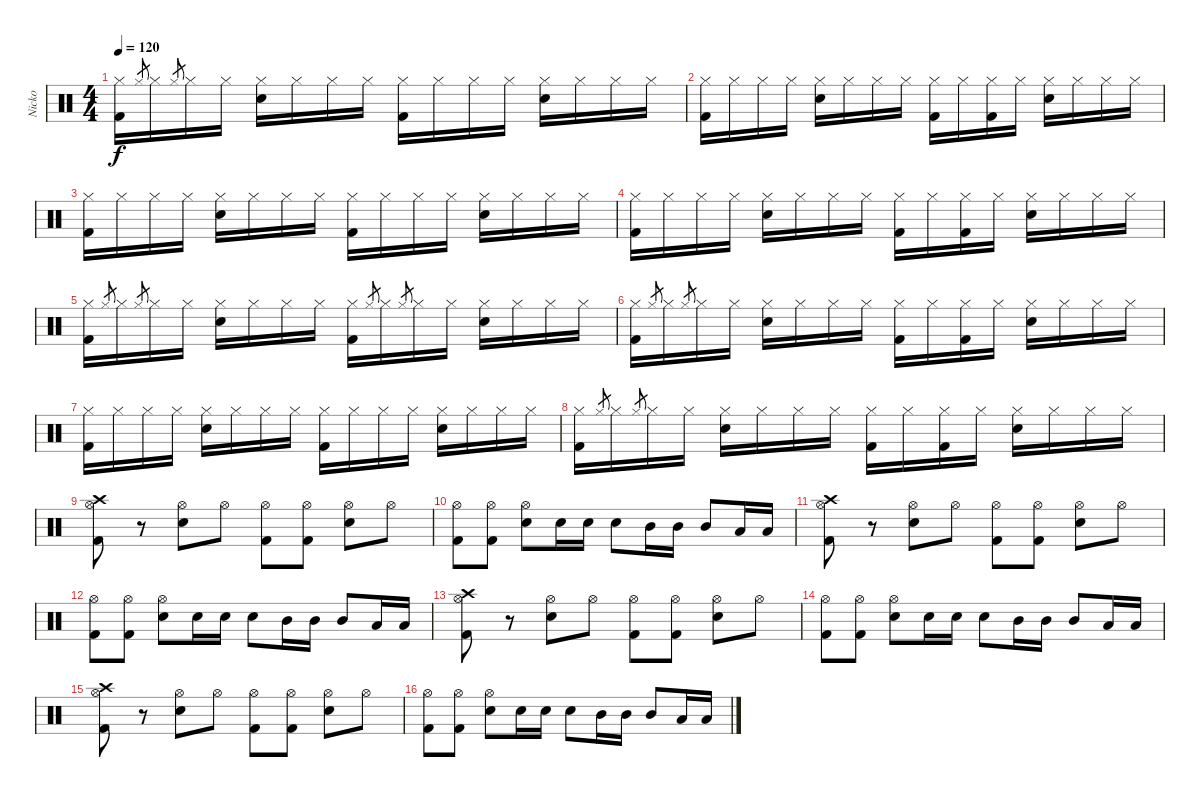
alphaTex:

\track ("Nicko" "Nicko") {instrument percussion}
\staff {score}
\articulation defaults
\ts (4 4)
\tempo 120
\clef neutral
\ks c
("Kick (hit) 2" "Hi-Hat (closed)").16{dy f} "Hi-Hat (closed)".8{gr} "Hi-Hat (closed)".16 "Hi-Hat (closed)".8{gr} "Hi-Hat (closed)".16 "Hi-Hat (closed)".16 ("Hi-Hat (closed)" "Electric Snare (hit)").16 "Hi-Hat (closed)".16 "Hi-Hat (closed)".16 "Hi-Hat (closed)".16 ("Hi-Hat (closed)" "Kick (hit) 2").16 "Hi-Hat (closed)".16 "Hi-Hat (closed)".16 "Hi-Hat (closed)".16 ("Hi-Hat (closed)" "Electric Snare (hit)").16 "Hi-Hat (closed)".16 "Hi-Hat (closed)".16 "Hi-Hat (closed)".16 |
("Kick (hit) 2" "Hi-Hat (closed)").16 "Hi-Hat (closed)".16 "Hi-Hat (closed)".16 "Hi-Hat (closed)".16 ("Hi-Hat (closed)" "Electric Snare (hit)").16 "Hi-Hat (closed)".16 "Hi-Hat (closed)".16 "Hi-Hat (closed)".16 ("Hi-Hat (closed)" "Kick (hit) 2").16 "Hi-Hat (closed)".16 ("Hi-Hat (closed)" "Kick (hit) 2").16 "Hi-Hat (closed)".16 ("Hi-Hat (closed)" "Electric Snare (hit)").16 "Hi-Hat (closed)".16 "Hi-Hat (closed)".16 "Hi-Hat (closed)".16 |
("Kick (hit) 2" "Hi-Hat (closed)").16 "Hi-Hat (closed)".16 "Hi-Hat (closed)".16 "Hi-Hat (closed)".16 ("Hi-Hat (closed)" "Electric Snare (hit)").16 "Hi-Hat (closed)".16 "Hi-Hat (closed)".16 "Hi-Hat (closed)".16 ("Hi-Hat (closed)" "Kick (hit) 2").16 "Hi-Hat (closed)".16 "Hi-Hat (closed)".16 "Hi-Hat (closed)".16 ("Hi-Hat (closed)" "Electric Snare (hit)").16 "Hi-Hat (closed)".16 "Hi-Hat (closed)".16 "Hi-Hat (closed)".16 |
("Kick (hit) 2" "Hi-Hat (closed)").16 "Hi-Hat (closed)".16 "Hi-Hat (closed)".16 "Hi-Hat (closed)".16 ("Hi-Hat (closed)" "Electric Snare (hit)").16 "Hi-Hat (closed)".16 "Hi-Hat (closed)".16 "Hi-Hat (closed)".16 ("Hi-Hat (closed)" "Kick (hit) 2").16 "Hi-Hat (closed)".16 ("Hi-Hat (closed)" "Kick (hit) 2").16 "Hi-Hat (closed)".16 ("Hi-Hat (closed)" "Electric Snare (hit)").16 "Hi-Hat (closed)".16 "Hi-Hat (closed)".16 "Hi-Hat (closed)".16 |
("Kick (hit) 2" "Hi-Hat (closed)").16 "Hi-Hat (closed)".8{gr} "Hi-Hat (closed)".16 "Hi-Hat (closed)".8{gr} "Hi-Hat (closed)".16 "Hi-Hat (closed)".16 ("Hi-Hat (closed)" "Electric Snare (hit)").16 "Hi-Hat (closed)".16 "Hi-Hat (closed)".16 "Hi-Hat (closed)".16 ("Hi-Hat (closed)" "Kick (hit) 2").16 "Hi-Hat (closed)".8{gr} "Hi-Hat (closed)".16 "Hi-Hat (closed)".8{gr} "Hi-Hat (closed)".16 "Hi-Hat (closed)".16 ("Hi-Hat (closed)" "Electric Snare (hit)").16 "Hi-Hat (closed)".16 "Hi-Hat (closed)".16 "Hi-Hat (closed)".16 |
("Kick (hit) 2" "Hi-Hat (closed)").16 "Hi-Hat (closed)".8{gr} "Hi-Hat (closed)".16 "Hi-Hat (closed)".8{gr} "Hi-Hat (closed)".16 "Hi-Hat (closed)".16 ("Hi-Hat (closed)" "Electric Snare (hit)").16 "Hi-Hat (closed)".16 "Hi-Hat (closed)".16 "Hi-Hat (closed)".16 ("Hi-Hat (closed)" "Kick (hit) 2").16 "Hi-Hat (closed)".16 ("Hi-Hat (closed)" "Kick (hit) 2").16 "Hi-Hat (closed)".16 ("Hi-Hat (closed)" "Electric Snare (hit)").16 "Hi-Hat (closed)".16 "Hi-Hat (closed)".16 "Hi-Hat (closed)".16 |
("Kick (hit) 2" "Hi-Hat (closed)").16 "Hi-Hat (closed)".16 "Hi-Hat (closed)".16 "Hi-Hat (closed)".16 ("Hi-Hat (closed)" "Electric Snare (hit)").16 "Hi-Hat (closed)".16 "Hi-Hat (closed)".16 "Hi-Hat (closed)".16 ("Hi-Hat (closed)" "Kick (hit) 2").16 "Hi-Hat (closed)".16 "Hi-Hat (closed)".16 "Hi-Hat (closed)".16 ("Hi-Hat (closed)" "Electric Snare (hit)").16 "Hi-Hat (closed)".16 "Hi-Hat (closed)".16 "Hi-Hat (closed)".16 |
("Kick (hit) 2" "Hi-Hat (closed)").16 "Hi-Hat (closed)".8{gr} "Hi-Hat (closed)".16 "Hi-Hat (closed)".8{gr} "Hi-Hat (closed)".16 "Hi-Hat (closed)".16 ("Hi-Hat (closed)" "Electric Snare (hit)").16 "Hi-Hat (closed)".16 "Hi-Hat (closed)".16 "Hi-Hat (closed)".16 ("Hi-Hat (closed)" "Kick (hit) 2").16 "Hi-Hat (closed)".16 ("Hi-Hat (closed)" "Kick (hit) 2").16 "Hi-Hat (closed)".16 ("Hi-Hat (closed)" "Electric Snare (hit)").16 "Hi-Hat (closed)".16 "Hi-Hat (closed)".16 "Hi-Hat (closed)".16 |
("Kick (hit) 2" "Hi-Hat (open)" "Crash high (hit)").8 r.8 ("Snare (hit) 2" "Hi-Hat (open)").8 "Hi-Hat (open)".8 ("Kick (hit) 2" "Hi-Hat (open)").8 ("Kick (hit) 2" "Hi-Hat (open)").8 ("Snare (hit) 2" "Hi-Hat (open)").8 "Hi-Hat (open)".8 |
("Kick (hit) 2" "Hi-Hat (open)").8 ("Kick (hit) 2" "Hi-Hat (open)").8 ("Snare (hit) 2" "Hi-Hat (open)").8 "Snare (hit) 2".16 "Snare (hit) 2".16 "Snare (hit) 2".8 "Mid Tom (hit)".16 "Mid Tom (hit)".16 "Mid Tom (hit)".8 "Low Tom (hit)".16 "Low Tom (hit)".16 |
("Kick (hit) 2" "Hi-Hat (open)" "Crash high (hit)").8 r.8 ("Snare (hit) 2" "Hi-Hat (open)").8 "Hi-Hat (open)".8 ("Kick (hit) 2" "Hi-Hat (open)").8 ("Kick (hit) 2" "Hi-Hat (open)").8 ("Snare (hit) 2" "Hi-Hat (open)").8 "Hi-Hat (open)".8 |
("Kick (hit) 2" "Hi-Hat (open)").8 ("Kick (hit) 2" "Hi-Hat (open)").8 ("Snare (hit) 2" "Hi-Hat (open)").8 "Snare (hit) 2".16 "Snare (hit) 2".16 "Snare (hit) 2".8 "Mid Tom (hit)".16 "Mid Tom (hit)".16 "Mid Tom (hit)".8 "Low Tom (hit)".16 "Low Tom (hit)".16 |
("Kick (hit) 2" "Hi-Hat (open)" "Crash high (hit)").8 r.8 ("Snare (hit) 2" "Hi-Hat (open)").8 "Hi-Hat (open)".8 ("Kick (hit) 2" "Hi-Hat (open)").8 ("Kick (hit) 2" "Hi-Hat (open)").8 ("Snare (hit) 2" "Hi-Hat (open)").8 "Hi-Hat (open)".8 |
("Kick (hit) 2" "Hi-Hat (open)").8 ("Kick (hit) 2" "Hi-Hat (open)").8 ("Snare (hit) 2" "Hi-Hat (open)").8 "Snare (hit) 2".16 "Snare (hit) 2".16 "Snare (hit) 2".8 "Mid Tom (hit)".16 "Mid Tom (hit)".16 "Mid Tom (hit)".8 "Low Tom (hit)".16 "Low Tom (hit)".16 |
("Kick (hit) 2" "Hi-Hat (open)" "Crash high (hit)").8 r.8 ("Snare (hit) 2" "Hi-Hat (open)").8 "Hi-Hat (open)".8 ("Kick (hit) 2" "Hi-Hat (open)").8 ("Kick (hit) 2" "Hi-Hat (open)").8 ("Snare (hit) 2" "Hi-Hat (open)").8 "Hi-Hat (open)".8 |
("Kick (hit) 2" "Hi-Hat (open)").8 ("Kick (hit) 2" "Hi-Hat (open)").8 ("Snare (hit) 2" "Hi-Hat (open)").8 "Snare (hit) 2".16 "Snare (hit) 2".16 "Snare (hit) 2".8 "Mid Tom (hit)".16 "Mid Tom (hit)".16 "Mid Tom (hit)".8 "Low Tom (hit)".16 "Low Tom (hit)".16
